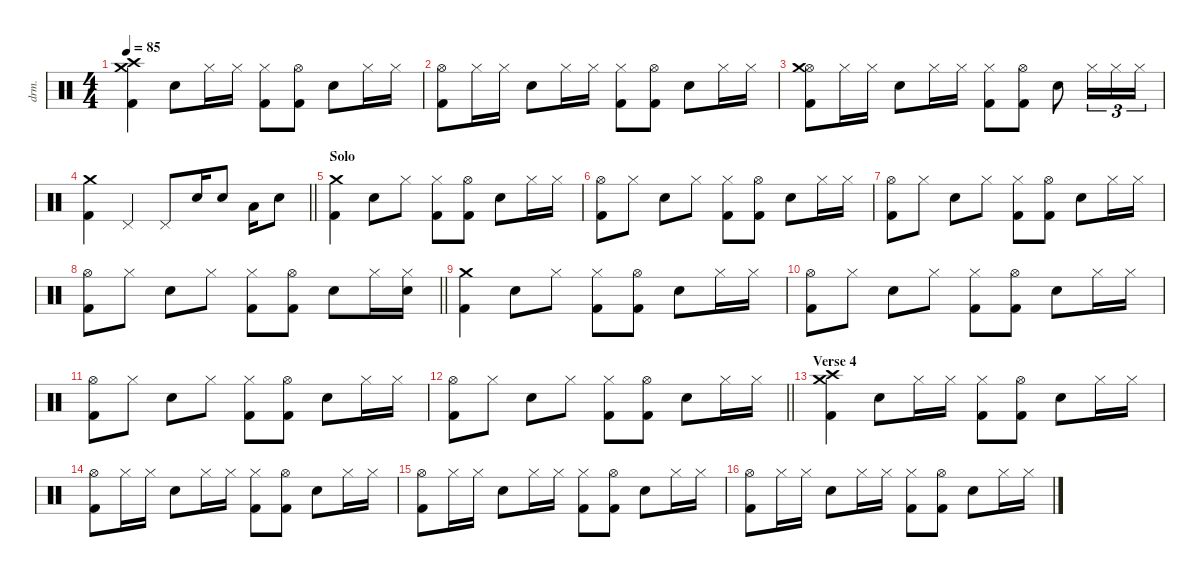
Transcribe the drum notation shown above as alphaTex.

\defaultSystemsLayout 4
\hideDynamics
\bracketExtendMode nobrackets
\otherSystemsTrackNameOrientation horizontal
\track ("Drums" "drm.") {defaultSystemsLayout 4 instrument percussion}
\staff {score}
\articulation defaults
\ts (4 4)
\tempo 85
\clef neutral
\ks c
("Crash medium (hit)" "Crash high (hit)" "Kick (hit) 2").4{dy f} "Snare (hit) 2".8 "Hi-Hat (closed)".16 "Hi-Hat (closed)".16 ("Hi-Hat (closed)" "Kick (hit) 2").8 ("Hi-Hat (open)" "Kick (hit) 2").8 "Snare (hit) 2".8 "Hi-Hat (closed)".16 "Hi-Hat (closed)".16 |
("Hi-Hat (open)" "Kick (hit) 2").8 "Hi-Hat (closed)".16 "Hi-Hat (closed)".16 "Snare (hit) 2".8 "Hi-Hat (closed)".16 "Hi-Hat (closed)".16 ("Hi-Hat (closed)" "Kick (hit) 2").8 ("Hi-Hat (open)" "Kick (hit) 2").8 "Snare (hit) 2".8 "Hi-Hat (closed)".16 "Hi-Hat (closed)".16 |
("Hi-Hat (open)" "Crash medium (hit)" "Kick (hit) 2").8 "Hi-Hat (closed)".16 "Hi-Hat (closed)".16 "Snare (hit) 2".8 "Hi-Hat (closed)".16 "Hi-Hat (closed)".16 ("Hi-Hat (closed)" "Kick (hit) 2").8 ("Hi-Hat (open)" "Kick (hit) 2").8 "Snare (hit) 2".8 "Hi-Hat (closed)".16{tu (3 2)} "Hi-Hat (closed)".16{tu (3 2)} "Hi-Hat (closed)".16{tu (3 2)} |
\barLineRight lightlight
("Crash medium (hit)" "Kick (hit) 2").4{dy ff} "Pedal Hi-Hat (hit)".4 "Pedal Hi-Hat (hit)".8 "Snare (hit) 2".16{dy mp} "Snare (hit) 2".8{dy f} "Low Tom (hit)".16{dy fff} "Snare (hit) 2".8{dy f} |
\section ("" "Solo")
("Crash medium (hit)" "Kick (hit) 2").4 "Snare (hit) 2".8 "Hi-Hat (closed)".8 ("Hi-Hat (closed)" "Kick (hit) 2").8 ("Hi-Hat (open)" "Kick (hit) 2").8 "Snare (hit) 2".8 "Hi-Hat (closed)".16 "Hi-Hat (closed)".16 |
("Hi-Hat (open)" "Kick (hit) 2").8 "Hi-Hat (closed)".8 "Snare (hit) 2".8 "Hi-Hat (closed)".8 ("Hi-Hat (closed)" "Kick (hit) 2").8 ("Hi-Hat (open)" "Kick (hit) 2").8 "Snare (hit) 2".8 "Hi-Hat (closed)".16 "Hi-Hat (closed)".16 |
("Hi-Hat (open)" "Kick (hit) 2").8 "Hi-Hat (closed)".8 "Snare (hit) 2".8 "Hi-Hat (closed)".8 ("Hi-Hat (closed)" "Kick (hit) 2").8 ("Hi-Hat (open)" "Kick (hit) 2").8 "Snare (hit) 2".8 "Hi-Hat (closed)".16 "Hi-Hat (closed)".16 |
\barLineRight lightlight
("Hi-Hat (open)" "Kick (hit) 2").8 "Hi-Hat (closed)".8 "Snare (hit) 2".8 "Hi-Hat (closed)".8 ("Hi-Hat (closed)" "Kick (hit) 2").8 ("Hi-Hat (open)" "Kick (hit) 2").8 "Snare (hit) 2".8 "Hi-Hat (closed)".16 ("Hi-Hat (closed)" "Snare (hit) 2").16 |
("Crash medium (hit)" "Kick (hit) 2").4 "Snare (hit) 2".8 "Hi-Hat (closed)".8 ("Hi-Hat (closed)" "Kick (hit) 2").8 ("Hi-Hat (open)" "Kick (hit) 2").8 "Snare (hit) 2".8 "Hi-Hat (closed)".16 "Hi-Hat (closed)".16 |
("Hi-Hat (open)" "Kick (hit) 2").8 "Hi-Hat (closed)".8 "Snare (hit) 2".8 "Hi-Hat (closed)".8 ("Hi-Hat (closed)" "Kick (hit) 2").8 ("Hi-Hat (open)" "Kick (hit) 2").8 "Snare (hit) 2".8 "Hi-Hat (closed)".16 "Hi-Hat (closed)".16 |
("Hi-Hat (open)" "Kick (hit) 2").8 "Hi-Hat (closed)".8 "Snare (hit) 2".8 "Hi-Hat (closed)".8 ("Hi-Hat (closed)" "Kick (hit) 2").8 ("Hi-Hat (open)" "Kick (hit) 2").8 "Snare (hit) 2".8 "Hi-Hat (closed)".16 "Hi-Hat (closed)".16 |
\barLineRight lightlight
("Hi-Hat (open)" "Kick (hit) 2").8 "Hi-Hat (closed)".8 "Snare (hit) 2".8 "Hi-Hat (closed)".8 ("Hi-Hat (closed)" "Kick (hit) 2").8 ("Hi-Hat (open)" "Kick (hit) 2").8 "Snare (hit) 2".8 "Hi-Hat (closed)".16 "Hi-Hat (closed)".16 |
\section ("" "Verse 4")
("Crash medium (hit)" "Crash high (hit)" "Kick (hit) 2").4 "Snare (hit) 2".8 "Hi-Hat (closed)".16 "Hi-Hat (closed)".16 ("Hi-Hat (closed)" "Kick (hit) 2").8 ("Hi-Hat (open)" "Kick (hit) 2").8 "Snare (hit) 2".8 "Hi-Hat (closed)".16 "Hi-Hat (closed)".16 |
("Hi-Hat (open)" "Kick (hit) 2").8 "Hi-Hat (closed)".16 "Hi-Hat (closed)".16 "Snare (hit) 2".8 "Hi-Hat (closed)".16 "Hi-Hat (closed)".16 ("Hi-Hat (closed)" "Kick (hit) 2").8 ("Hi-Hat (open)" "Kick (hit) 2").8 "Snare (hit) 2".8 "Hi-Hat (closed)".16 "Hi-Hat (closed)".16 |
("Hi-Hat (open)" "Kick (hit) 2").8 "Hi-Hat (closed)".16 "Hi-Hat (closed)".16 "Snare (hit) 2".8 "Hi-Hat (closed)".16 "Hi-Hat (closed)".16 ("Hi-Hat (closed)" "Kick (hit) 2").8 ("Hi-Hat (open)" "Kick (hit) 2").8 "Snare (hit) 2".8 "Hi-Hat (closed)".16 "Hi-Hat (closed)".16 |
("Hi-Hat (open)" "Kick (hit) 2").8 "Hi-Hat (closed)".16 "Hi-Hat (closed)".16 "Snare (hit) 2".8 "Hi-Hat (closed)".16 "Hi-Hat (closed)".16 ("Hi-Hat (closed)" "Kick (hit) 2").8 ("Hi-Hat (open)" "Kick (hit) 2").8 "Snare (hit) 2".8 "Hi-Hat (closed)".16 "Hi-Hat (closed)".16
